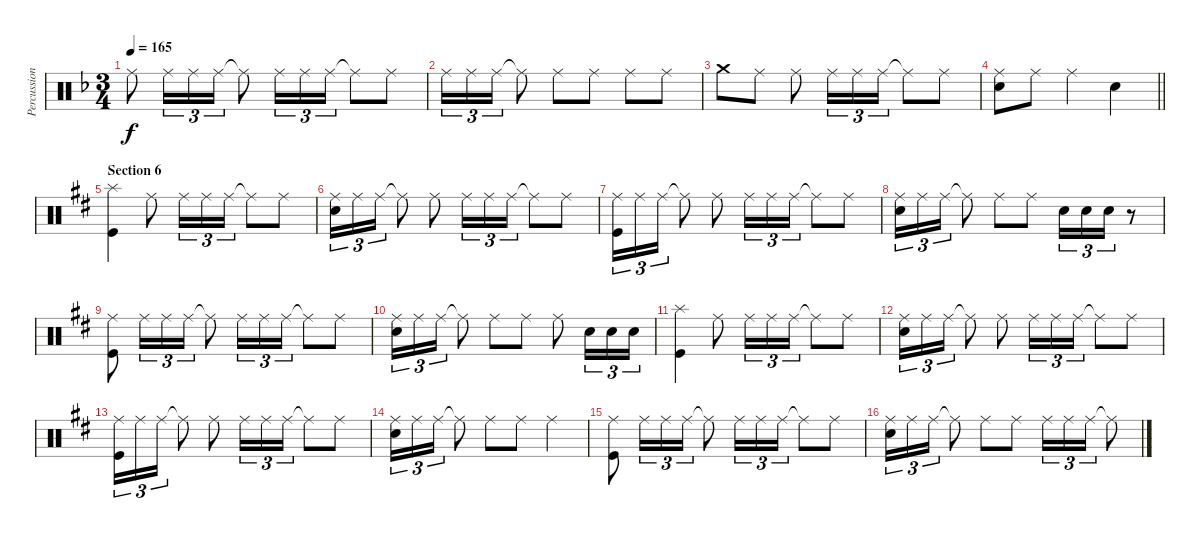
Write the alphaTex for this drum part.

\track ("Percussion" "Percussion") {instrument percussion}
\staff {score}
\articulation defaults
\ts (3 4)
\tempo 165
\clef neutral
\ks f "Ride (middle)".8{dy f} "Ride (middle)".16{tu (3 2)} "Ride (middle)".16{tu (3 2)} "Ride (middle)".16{tu (3 2)} "Ride (middle)"{t}.8 "Ride (middle)".16{tu (3 2)} "Ride (middle)".16{tu (3 2)} "Ride (middle)".16{tu (3 2)} "Ride (middle)"{t}.8 "Ride (middle)".8
|
"Ride (middle)".16{tu (3 2)} "Ride (middle)".16{tu (3 2)} "Ride (middle)".16{tu (3 2)} "Ride (middle)"{t}.8 "Ride (middle)".8 "Ride (middle)".8 "Ride (middle)".8 "Ride (middle)".8 |
"Crash medium (hit)".8 "Ride (middle)".8 "Ride (middle)".8 "Ride (middle)".16{tu (3 2)} "Ride (middle)".16{tu (3 2)} "Ride (middle)".16{tu (3 2)} "Ride (middle)"{t}.8 "Ride (middle)".8 |
\barLineRight lightlight
("Ride (middle)" "Snare (hit) 2").8 "Ride (middle)".8 "Ride (middle)".4 "Snare (hit) 2".4 |
\section ("" "Section 6")
\ks d
("Splash (hit)" "Kick (hit)").4 "Ride (middle)".8 "Ride (middle)".16{tu (3 2)} "Ride (middle)".16{tu (3 2)} "Ride (middle)".16{tu (3 2)} "Ride (middle)"{t}.8 "Ride (middle)".8 |
("Ride (middle)" "Snare (hit) 2").16{tu (3 2)} "Ride (middle)".16{tu (3 2)} "Ride (middle)".16{tu (3 2)} "Ride (middle)"{t}.8 "Ride (middle)".8 "Ride (middle)".16{tu (3 2)} "Ride (middle)".16{tu (3 2)} "Ride (middle)".16{tu (3 2)} "Ride (middle)"{t}.8 "Ride (middle)".8 |
("Ride (middle)" "Kick (hit)").16{tu (3 2)} "Ride (middle)".16{tu (3 2)} "Ride (middle)".16{tu (3 2)} "Ride (middle)"{t}.8 "Ride (middle)".8 "Ride (middle)".16{tu (3 2)} "Ride (middle)".16{tu (3 2)} "Ride (middle)".16{tu (3 2)} "Ride (middle)"{t}.8 "Ride (middle)".8 |
("Ride (middle)" "Snare (hit) 2").16{tu (3 2)} "Ride (middle)".16{tu (3 2)} "Ride (middle)".16{tu (3 2)} "Ride (middle)"{t}.8 "Ride (middle)".8 "Ride (middle)".8 "Snare (hit) 2".16{tu (3 2)} "Snare (hit) 2".16{tu (3 2)} "Snare (hit) 2".16{tu (3 2)} r.8 |
("Ride (middle)" "Kick (hit)").8 "Ride (middle)".16{tu (3 2)} "Ride (middle)".16{tu (3 2)} "Ride (middle)".16{tu (3 2)} "Ride (middle)"{t}.8 "Ride (middle)".16{tu (3 2)} "Ride (middle)".16{tu (3 2)} "Ride (middle)".16{tu (3 2)} "Ride (middle)"{t}.8 "Ride (middle)".8 |
("Ride (middle)" "Snare (hit) 2").16{tu (3 2)} "Ride (middle)".16{tu (3 2)} "Ride (middle)".16{tu (3 2)} "Ride (middle)"{t}.8 "Ride (middle)".8 "Ride (middle)".8 "Ride (middle)".8 "Snare (hit) 2".16{tu (3 2)} "Snare (hit) 2".16{tu (3 2)} "Snare (hit) 2".16{tu (3 2)} |
("Splash (hit)" "Kick (hit)").4 "Ride (middle)".8 "Ride (middle)".16{tu (3 2)} "Ride (middle)".16{tu (3 2)} "Ride (middle)".16{tu (3 2)} "Ride (middle)"{t}.8 "Ride (middle)".8 |
("Ride (middle)" "Snare (hit) 2").16{tu (3 2)} "Ride (middle)".16{tu (3 2)} "Ride (middle)".16{tu (3 2)} "Ride (middle)"{t}.8 "Ride (middle)".8 "Ride (middle)".16{tu (3 2)} "Ride (middle)".16{tu (3 2)} "Ride (middle)".16{tu (3 2)} "Ride (middle)"{t}.8 "Ride (middle)".8 |
("Ride (middle)" "Kick (hit)").16{tu (3 2)} "Ride (middle)".16{tu (3 2)} "Ride (middle)".16{tu (3 2)} "Ride (middle)"{t}.8 "Ride (middle)".8 "Ride (middle)".16{tu (3 2)} "Ride (middle)".16{tu (3 2)} "Ride (middle)".16{tu (3 2)} "Ride (middle)"{t}.8 "Ride (middle)".8 |
("Ride (middle)" "Snare (hit) 2").16{tu (3 2)} "Ride (middle)".16{tu (3 2)} "Ride (middle)".16{tu (3 2)} "Ride (middle)"{t}.8 "Ride (middle)".8 "Ride (middle)".8 "Ride (middle)".4 |
("Ride (middle)" "Kick (hit)").8 "Ride (middle)".16{tu (3 2)} "Ride (middle)".16{tu (3 2)} "Ride (middle)".16{tu (3 2)} "Ride (middle)"{t}.8 "Ride (middle)".16{tu (3 2)} "Ride (middle)".16{tu (3 2)} "Ride (middle)".16{tu (3 2)} "Ride (middle)"{t}.8 "Ride (middle)".8 |
("Ride (middle)" "Snare (hit) 2").16{tu (3 2)} "Ride (middle)".16{tu (3 2)} "Ride (middle)".16{tu (3 2)} "Ride (middle)"{t}.8 "Ride (middle)".8 "Ride (middle)".8 "Ride (middle)".16{tu (3 2)} "Ride (middle)".16{tu (3 2)} "Ride (middle)".16{tu (3 2)} "Ride (middle)"{t}.8
